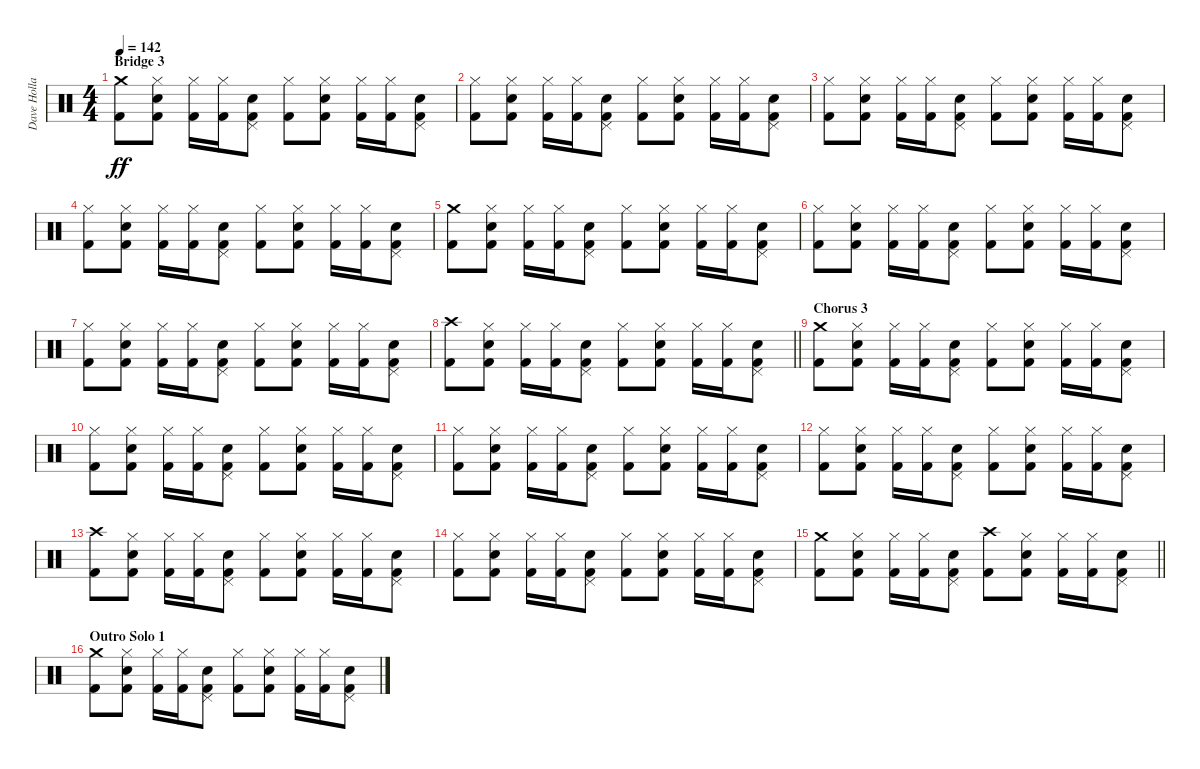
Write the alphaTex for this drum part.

\track ("Dave Holland" "Dave Holla") {instrument percussion}
\staff {score}
\articulation defaults
\ts (4 4)
\section ("" "Bridge 3")
\tempo 142
\clef neutral
\ks c
("Crash medium (hit)" "Kick (hit) 2").8{dy ff} ("Hi-Hat (closed)" "Snare (hit) 2" "Kick (hit) 2").8 ("Hi-Hat (closed)" "Kick (hit) 2").16 ("Hi-Hat (closed)" "Kick (hit) 2").16 ("Pedal Hi-Hat (hit)" "Snare (hit) 2" "Kick (hit) 2").8 ("Hi-Hat (closed)" "Kick (hit) 2").8 ("Hi-Hat (closed)" "Snare (hit) 2" "Kick (hit) 2").8 ("Hi-Hat (closed)" "Kick (hit) 2").16 ("Hi-Hat (closed)" "Kick (hit) 2").16 ("Pedal Hi-Hat (hit)" "Snare (hit) 2" "Kick (hit) 2").8 |
("Hi-Hat (closed)" "Kick (hit) 2").8 ("Hi-Hat (closed)" "Snare (hit) 2" "Kick (hit) 2").8 ("Hi-Hat (closed)" "Kick (hit) 2").16 ("Hi-Hat (closed)" "Kick (hit) 2").16 ("Pedal Hi-Hat (hit)" "Snare (hit) 2" "Kick (hit) 2").8 ("Hi-Hat (closed)" "Kick (hit) 2").8 ("Hi-Hat (closed)" "Snare (hit) 2" "Kick (hit) 2").8 ("Hi-Hat (closed)" "Kick (hit) 2").16 ("Hi-Hat (closed)" "Kick (hit) 2").16 ("Pedal Hi-Hat (hit)" "Snare (hit) 2" "Kick (hit) 2").8 |
("Hi-Hat (closed)" "Kick (hit) 2").8 ("Hi-Hat (closed)" "Snare (hit) 2" "Kick (hit) 2").8 ("Hi-Hat (closed)" "Kick (hit) 2").16 ("Hi-Hat (closed)" "Kick (hit) 2").16 ("Pedal Hi-Hat (hit)" "Snare (hit) 2" "Kick (hit) 2").8 ("Hi-Hat (closed)" "Kick (hit) 2").8 ("Hi-Hat (closed)" "Snare (hit) 2" "Kick (hit) 2").8 ("Hi-Hat (closed)" "Kick (hit) 2").16 ("Hi-Hat (closed)" "Kick (hit) 2").16 ("Pedal Hi-Hat (hit)" "Snare (hit) 2" "Kick (hit) 2").8 |
("Hi-Hat (closed)" "Kick (hit) 2").8 ("Hi-Hat (closed)" "Snare (hit) 2" "Kick (hit) 2").8 ("Hi-Hat (closed)" "Kick (hit) 2").16 ("Hi-Hat (closed)" "Kick (hit) 2").16 ("Pedal Hi-Hat (hit)" "Snare (hit) 2" "Kick (hit) 2").8 ("Hi-Hat (closed)" "Kick (hit) 2").8 ("Hi-Hat (closed)" "Snare (hit) 2" "Kick (hit) 2").8 ("Hi-Hat (closed)" "Kick (hit) 2").16 ("Hi-Hat (closed)" "Kick (hit) 2").16 ("Pedal Hi-Hat (hit)" "Snare (hit) 2" "Kick (hit) 2").8 |
("Crash medium (hit)" "Kick (hit) 2").8 ("Hi-Hat (closed)" "Snare (hit) 2" "Kick (hit) 2").8 ("Hi-Hat (closed)" "Kick (hit) 2").16 ("Hi-Hat (closed)" "Kick (hit) 2").16 ("Pedal Hi-Hat (hit)" "Snare (hit) 2" "Kick (hit) 2").8 ("Hi-Hat (closed)" "Kick (hit) 2").8 ("Hi-Hat (closed)" "Snare (hit) 2" "Kick (hit) 2").8 ("Hi-Hat (closed)" "Kick (hit) 2").16 ("Hi-Hat (closed)" "Kick (hit) 2").16 ("Pedal Hi-Hat (hit)" "Snare (hit) 2" "Kick (hit) 2").8 |
("Hi-Hat (closed)" "Kick (hit) 2").8 ("Hi-Hat (closed)" "Snare (hit) 2" "Kick (hit) 2").8 ("Hi-Hat (closed)" "Kick (hit) 2").16 ("Hi-Hat (closed)" "Kick (hit) 2").16 ("Pedal Hi-Hat (hit)" "Snare (hit) 2" "Kick (hit) 2").8 ("Hi-Hat (closed)" "Kick (hit) 2").8 ("Hi-Hat (closed)" "Snare (hit) 2" "Kick (hit) 2").8 ("Hi-Hat (closed)" "Kick (hit) 2").16 ("Hi-Hat (closed)" "Kick (hit) 2").16 ("Pedal Hi-Hat (hit)" "Snare (hit) 2" "Kick (hit) 2").8 |
("Hi-Hat (closed)" "Kick (hit) 2").8 ("Hi-Hat (closed)" "Snare (hit) 2" "Kick (hit) 2").8 ("Hi-Hat (closed)" "Kick (hit) 2").16 ("Hi-Hat (closed)" "Kick (hit) 2").16 ("Pedal Hi-Hat (hit)" "Snare (hit) 2" "Kick (hit) 2").8 ("Hi-Hat (closed)" "Kick (hit) 2").8 ("Hi-Hat (closed)" "Snare (hit) 2" "Kick (hit) 2").8 ("Hi-Hat (closed)" "Kick (hit) 2").16 ("Hi-Hat (closed)" "Kick (hit) 2").16 ("Pedal Hi-Hat (hit)" "Snare (hit) 2" "Kick (hit) 2").8 |
\barLineRight lightlight
("Crash high (hit)" "Kick (hit) 2").8 ("Hi-Hat (closed)" "Snare (hit) 2" "Kick (hit) 2").8 ("Hi-Hat (closed)" "Kick (hit) 2").16 ("Hi-Hat (closed)" "Kick (hit) 2").16 ("Pedal Hi-Hat (hit)" "Snare (hit) 2" "Kick (hit) 2").8 ("Hi-Hat (closed)" "Kick (hit) 2").8 ("Hi-Hat (closed)" "Snare (hit) 2" "Kick (hit) 2").8 ("Hi-Hat (closed)" "Kick (hit) 2").16 ("Hi-Hat (closed)" "Kick (hit) 2").16 ("Pedal Hi-Hat (hit)" "Snare (hit) 2" "Kick (hit) 2").8 |
\section ("" "Chorus 3")
("Crash medium (hit)" "Kick (hit) 2").8 ("Hi-Hat (closed)" "Snare (hit) 2" "Kick (hit) 2").8 ("Hi-Hat (closed)" "Kick (hit) 2").16 ("Hi-Hat (closed)" "Kick (hit) 2").16 ("Pedal Hi-Hat (hit)" "Snare (hit) 2" "Kick (hit) 2").8 ("Hi-Hat (closed)" "Kick (hit) 2").8 ("Hi-Hat (closed)" "Snare (hit) 2" "Kick (hit) 2").8 ("Hi-Hat (closed)" "Kick (hit) 2").16 ("Hi-Hat (closed)" "Kick (hit) 2").16 ("Pedal Hi-Hat (hit)" "Snare (hit) 2" "Kick (hit) 2").8 |
("Hi-Hat (closed)" "Kick (hit) 2").8 ("Hi-Hat (closed)" "Snare (hit) 2" "Kick (hit) 2").8 ("Hi-Hat (closed)" "Kick (hit) 2").16 ("Hi-Hat (closed)" "Kick (hit) 2").16 ("Pedal Hi-Hat (hit)" "Snare (hit) 2" "Kick (hit) 2").8 ("Hi-Hat (closed)" "Kick (hit) 2").8 ("Hi-Hat (closed)" "Snare (hit) 2" "Kick (hit) 2").8 ("Hi-Hat (closed)" "Kick (hit) 2").16 ("Hi-Hat (closed)" "Kick (hit) 2").16 ("Pedal Hi-Hat (hit)" "Snare (hit) 2" "Kick (hit) 2").8 |
("Hi-Hat (closed)" "Kick (hit) 2").8 ("Hi-Hat (closed)" "Snare (hit) 2" "Kick (hit) 2").8 ("Hi-Hat (closed)" "Kick (hit) 2").16 ("Hi-Hat (closed)" "Kick (hit) 2").16 ("Pedal Hi-Hat (hit)" "Snare (hit) 2" "Kick (hit) 2").8 ("Hi-Hat (closed)" "Kick (hit) 2").8 ("Hi-Hat (closed)" "Snare (hit) 2" "Kick (hit) 2").8 ("Hi-Hat (closed)" "Kick (hit) 2").16 ("Hi-Hat (closed)" "Kick (hit) 2").16 ("Pedal Hi-Hat (hit)" "Snare (hit) 2" "Kick (hit) 2").8 |
("Hi-Hat (closed)" "Kick (hit) 2").8 ("Hi-Hat (closed)" "Snare (hit) 2" "Kick (hit) 2").8 ("Hi-Hat (closed)" "Kick (hit) 2").16 ("Hi-Hat (closed)" "Kick (hit) 2").16 ("Pedal Hi-Hat (hit)" "Snare (hit) 2" "Kick (hit) 2").8 ("Hi-Hat (closed)" "Kick (hit) 2").8 ("Hi-Hat (closed)" "Snare (hit) 2" "Kick (hit) 2").8 ("Hi-Hat (closed)" "Kick (hit) 2").16 ("Hi-Hat (closed)" "Kick (hit) 2").16 ("Pedal Hi-Hat (hit)" "Snare (hit) 2" "Kick (hit) 2").8 |
("Crash high (hit)" "Kick (hit) 2").8 ("Hi-Hat (closed)" "Snare (hit) 2" "Kick (hit) 2").8 ("Hi-Hat (closed)" "Kick (hit) 2").16 ("Hi-Hat (closed)" "Kick (hit) 2").16 ("Pedal Hi-Hat (hit)" "Snare (hit) 2" "Kick (hit) 2").8 ("Hi-Hat (closed)" "Kick (hit) 2").8 ("Hi-Hat (closed)" "Snare (hit) 2" "Kick (hit) 2").8 ("Hi-Hat (closed)" "Kick (hit) 2").16 ("Hi-Hat (closed)" "Kick (hit) 2").16 ("Pedal Hi-Hat (hit)" "Snare (hit) 2" "Kick (hit) 2").8 |
("Hi-Hat (closed)" "Kick (hit) 2").8 ("Hi-Hat (closed)" "Snare (hit) 2" "Kick (hit) 2").8 ("Hi-Hat (closed)" "Kick (hit) 2").16 ("Hi-Hat (closed)" "Kick (hit) 2").16 ("Pedal Hi-Hat (hit)" "Snare (hit) 2" "Kick (hit) 2").8 ("Hi-Hat (closed)" "Kick (hit) 2").8 ("Hi-Hat (closed)" "Snare (hit) 2" "Kick (hit) 2").8 ("Hi-Hat (closed)" "Kick (hit) 2").16 ("Hi-Hat (closed)" "Kick (hit) 2").16 ("Pedal Hi-Hat (hit)" "Snare (hit) 2" "Kick (hit) 2").8 |
\barLineRight lightlight
("Crash medium (hit)" "Kick (hit) 2").8 ("Hi-Hat (closed)" "Snare (hit) 2" "Kick (hit) 2").8 ("Hi-Hat (closed)" "Kick (hit) 2").16 ("Hi-Hat (closed)" "Kick (hit) 2").16 ("Pedal Hi-Hat (hit)" "Snare (hit) 2" "Kick (hit) 2").8 ("Crash high (hit)" "Kick (hit) 2").8 ("Hi-Hat (closed)" "Snare (hit) 2" "Kick (hit) 2").8 ("Hi-Hat (closed)" "Kick (hit) 2").16 ("Hi-Hat (closed)" "Kick (hit) 2").16 ("Pedal Hi-Hat (hit)" "Snare (hit) 2" "Kick (hit) 2").8 |
\section ("" "Outro Solo 1")
("Crash medium (hit)" "Kick (hit) 2").8 ("Hi-Hat (closed)" "Snare (hit) 2" "Kick (hit) 2").8 ("Hi-Hat (closed)" "Kick (hit) 2").16 ("Hi-Hat (closed)" "Kick (hit) 2").16 ("Pedal Hi-Hat (hit)" "Snare (hit) 2" "Kick (hit) 2").8 ("Hi-Hat (closed)" "Kick (hit) 2").8 ("Hi-Hat (closed)" "Snare (hit) 2" "Kick (hit) 2").8 ("Hi-Hat (closed)" "Kick (hit) 2").16 ("Hi-Hat (closed)" "Kick (hit) 2").16 ("Pedal Hi-Hat (hit)" "Snare (hit) 2" "Kick (hit) 2").8
